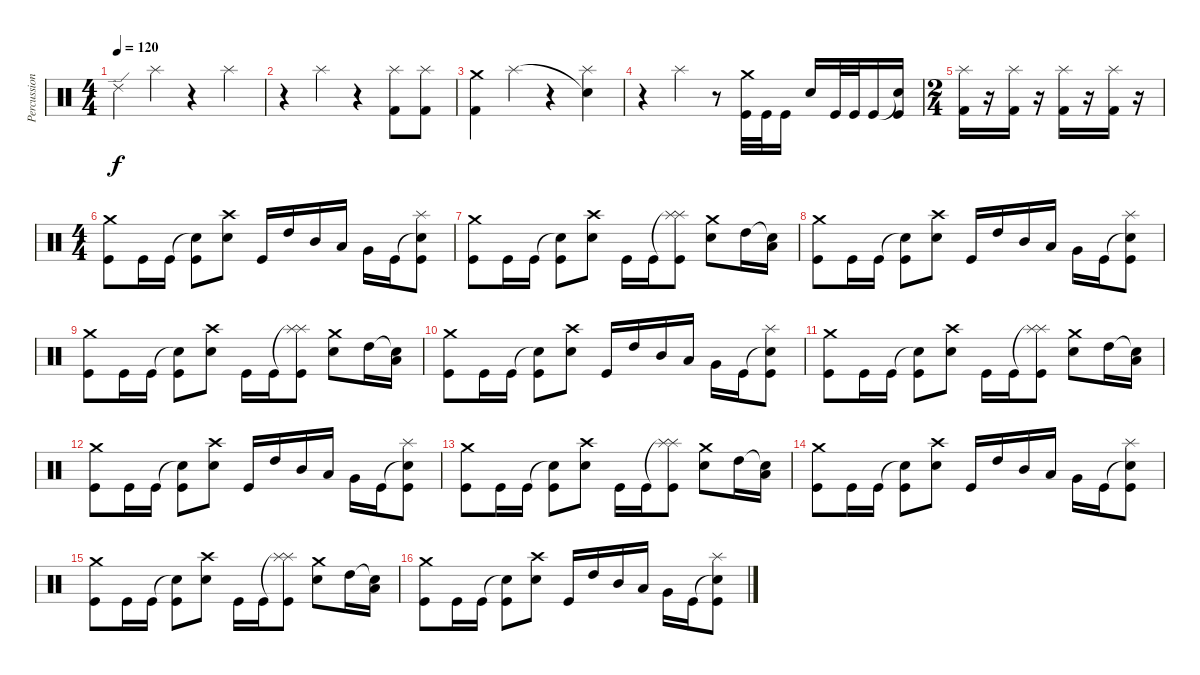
\track ("Percussion" "Percussion") {instrument percussion}
\staff {score}
\articulation defaults
\ts (4 4)
\tempo 120
\clef neutral
\ks c "Ride (edge) 2".4{dy f} "Splash (hit)".4
r.4 "Splash (hit)".4 |
r.4 "Splash (hit)".4 r.4 ("Splash (hit)" "Kick (hit) 2").8 ("Splash (hit)" "Kick (hit) 2").8 |
("Crash medium (hit)" "Kick (hit) 2").4 "Splash (hit)".4 r.4 ("Snare (hit)"{t} "Splash (hit)").4 |
r.4 "Splash (hit)".4 r.8 ("Crash medium (hit)" "Kick (hit)").32 "Kick (hit)".32 "Kick (hit)".16 "Electric Snare (hit)".16 "Kick (hit)".32 "Kick (hit)".32 "Kick (hit)".16 ("Snare (hit)"{t} "Kick (hit)").16 |
\ts (2 4)
("Splash (hit)" "Kick (hit) 2").16 r.16 ("Splash (hit)" "Kick (hit) 2").16 r.16 ("Splash (hit)" "Kick (hit) 2").16 r.16 ("Splash (hit)" "Kick (hit) 2").16 r.16 |
\ts (4 4)
("Crash medium (hit)" "Kick (hit)").8 "Kick (hit)".16 "Kick (hit)".16 ("Snare (hit)"{t} "Kick (hit)").8 ("Crash high (hit)" "Electric Snare (hit)").8 "Kick (hit)".16 "High Tom (hit)".16 "Mid Tom (hit)".16 "Low Tom (hit)".16 "Very Low Tom (hit)".16 "Kick (hit)".16 ("Snare (hit)"{t} "Splash (hit)" "Kick (hit)").8 |
("Crash medium (hit)" "Kick (hit)").8 "Kick (hit)".16 "Kick (hit)".16 ("Snare (hit)"{t} "Kick (hit)").8 ("Crash high (hit)" "Electric Snare (hit)").8 "Kick (hit)".16 "Kick (hit)".16 ("Splash (hit)"{t} "Splash (hit)" "Kick (hit)").8 ("Crash medium (hit)" "Electric Snare (hit)").8 "High Tom (hit)".16 ("Snare (hit)"{t} "Low Tom (hit)").16 |
("Crash medium (hit)" "Kick (hit)").8 "Kick (hit)".16 "Kick (hit)".16 ("Snare (hit)"{t} "Kick (hit)").8 ("Crash high (hit)" "Electric Snare (hit)").8 "Kick (hit)".16 "High Tom (hit)".16 "Mid Tom (hit)".16 "Low Tom (hit)".16 "Very Low Tom (hit)".16 "Kick (hit)".16 ("Snare (hit)"{t} "Splash (hit)" "Kick (hit)").8 |
("Crash medium (hit)" "Kick (hit)").8 "Kick (hit)".16 "Kick (hit)".16 ("Snare (hit)"{t} "Kick (hit)").8 ("Crash high (hit)" "Electric Snare (hit)").8 "Kick (hit)".16 "Kick (hit)".16 ("Splash (hit)"{t} "Splash (hit)" "Kick (hit)").8 ("Crash medium (hit)" "Electric Snare (hit)").8 "High Tom (hit)".16 ("Snare (hit)"{t} "Low Tom (hit)").16 |
("Crash medium (hit)" "Kick (hit)").8 "Kick (hit)".16 "Kick (hit)".16 ("Snare (hit)"{t} "Kick (hit)").8 ("Crash high (hit)" "Electric Snare (hit)").8 "Kick (hit)".16 "High Tom (hit)".16 "Mid Tom (hit)".16 "Low Tom (hit)".16 "Very Low Tom (hit)".16 "Kick (hit)".16 ("Snare (hit)"{t} "Splash (hit)" "Kick (hit)").8 |
("Crash medium (hit)" "Kick (hit)").8 "Kick (hit)".16 "Kick (hit)".16 ("Snare (hit)"{t} "Kick (hit)").8 ("Crash high (hit)" "Electric Snare (hit)").8 "Kick (hit)".16 "Kick (hit)".16 ("Splash (hit)"{t} "Splash (hit)" "Kick (hit)").8 ("Crash medium (hit)" "Electric Snare (hit)").8 "High Tom (hit)".16 ("Snare (hit)"{t} "Low Tom (hit)").16 |
("Crash medium (hit)" "Kick (hit)").8 "Kick (hit)".16 "Kick (hit)".16 ("Snare (hit)"{t} "Kick (hit)").8 ("Crash high (hit)" "Electric Snare (hit)").8 "Kick (hit)".16 "High Tom (hit)".16 "Mid Tom (hit)".16 "Low Tom (hit)".16 "Very Low Tom (hit)".16 "Kick (hit)".16 ("Snare (hit)"{t} "Splash (hit)" "Kick (hit)").8 |
("Crash medium (hit)" "Kick (hit)").8 "Kick (hit)".16 "Kick (hit)".16 ("Snare (hit)"{t} "Kick (hit)").8 ("Crash high (hit)" "Electric Snare (hit)").8 "Kick (hit)".16 "Kick (hit)".16 ("Splash (hit)"{t} "Splash (hit)" "Kick (hit)").8 ("Crash medium (hit)" "Electric Snare (hit)").8 "High Tom (hit)".16 ("Snare (hit)"{t} "Low Tom (hit)").16 |
("Crash medium (hit)" "Kick (hit)").8 "Kick (hit)".16 "Kick (hit)".16 ("Snare (hit)"{t} "Kick (hit)").8 ("Crash high (hit)" "Electric Snare (hit)").8 "Kick (hit)".16 "High Tom (hit)".16 "Mid Tom (hit)".16 "Low Tom (hit)".16 "Very Low Tom (hit)".16 "Kick (hit)".16 ("Snare (hit)"{t} "Splash (hit)" "Kick (hit)").8 |
("Crash medium (hit)" "Kick (hit)").8 "Kick (hit)".16 "Kick (hit)".16 ("Snare (hit)"{t} "Kick (hit)").8 ("Crash high (hit)" "Electric Snare (hit)").8 "Kick (hit)".16 "Kick (hit)".16 ("Splash (hit)"{t} "Splash (hit)" "Kick (hit)").8 ("Crash medium (hit)" "Electric Snare (hit)").8 "High Tom (hit)".16 ("Snare (hit)"{t} "Low Tom (hit)").16 |
("Crash medium (hit)" "Kick (hit)").8 "Kick (hit)".16 "Kick (hit)".16 ("Snare (hit)"{t} "Kick (hit)").8 ("Crash high (hit)" "Electric Snare (hit)").8 "Kick (hit)".16 "High Tom (hit)".16 "Mid Tom (hit)".16 "Low Tom (hit)".16 "Very Low Tom (hit)".16 "Kick (hit)".16 ("Snare (hit)"{t} "Splash (hit)" "Kick (hit)").8
